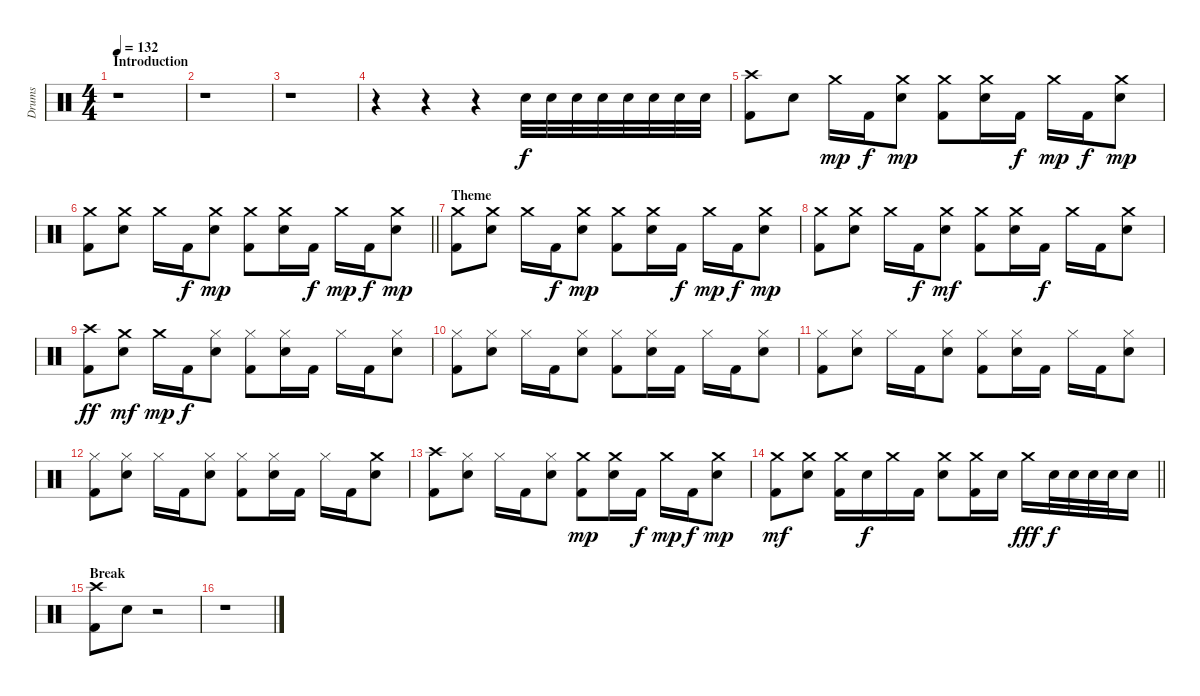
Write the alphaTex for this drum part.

\track ("Drums" "Drums") {instrument percussion}
\staff {score}
\articulation defaults
\ts (4 4)
\section ("" "Introduction")
\tempo 132
\clef neutral
\ks c
r.1{dy f} |
r.1 |
r.1 |
r.4 r.4 r.4 "Electric Snare (hit)".32 "Electric Snare (hit)".32 "Electric Snare (hit)".32 "Electric Snare (hit)".32 "Electric Snare (hit)".32 "Electric Snare (hit)".32 "Electric Snare (hit)".32 "Electric Snare (hit)".32 |
("Crash high (hit)" "Kick (hit) 2").8 "Electric Snare (hit)".8 "Crash medium (hit)".16{dy mp} "Kick (hit) 2".16{dy f} ("Crash medium (hit)" "Electric Snare (hit)").8{dy mp} ("Crash medium (hit)" "Kick (hit) 2").8 ("Crash medium (hit)" "Electric Snare (hit)").16 "Kick (hit) 2".16{dy f} "Crash medium (hit)".16{dy mp} "Kick (hit) 2".16{dy f} ("Crash medium (hit)" "Electric Snare (hit)").8{dy mp} |
\barLineRight lightlight
("Crash medium (hit)" "Kick (hit) 2").8 ("Crash medium (hit)" "Electric Snare (hit)").8 "Crash medium (hit)".16 "Kick (hit) 2".16{dy f} ("Crash medium (hit)" "Electric Snare (hit)").8{dy mp} ("Crash medium (hit)" "Kick (hit) 2").8 ("Crash medium (hit)" "Electric Snare (hit)").16 "Kick (hit) 2".16{dy f} "Crash medium (hit)".16{dy mp} "Kick (hit) 2".16{dy f} ("Crash medium (hit)" "Electric Snare (hit)").8{dy mp} |
\section ("" "Theme")
("Crash medium (hit)" "Kick (hit) 2").8 ("Crash medium (hit)" "Electric Snare (hit)").8 "Crash medium (hit)".16 "Kick (hit) 2".16{dy f} ("Crash medium (hit)" "Electric Snare (hit)").8{dy mp} ("Crash medium (hit)" "Kick (hit) 2").8 ("Crash medium (hit)" "Electric Snare (hit)").16 "Kick (hit) 2".16{dy f} "Crash medium (hit)".16{dy mp} "Kick (hit) 2".16{dy f} ("Crash medium (hit)" "Electric Snare (hit)").8{dy mp} |
("Crash medium (hit)" "Kick (hit) 2").8 ("Crash medium (hit)" "Electric Snare (hit)").8 "Crash medium (hit)".16 "Kick (hit) 2".16{dy f} ("Crash medium (hit)" "Electric Snare (hit)").8{dy mf} ("Crash medium (hit)" "Kick (hit) 2").8 ("Crash medium (hit)" "Electric Snare (hit)").16 "Kick (hit) 2".16{dy f} "Crash medium (hit)".16 "Kick (hit) 2".16 ("Crash medium (hit)" "Electric Snare (hit)").8 |
("Crash high (hit)" "Kick (hit) 2").8{dy ff} ("Crash medium (hit)" "Electric Snare (hit)").8{dy mf} "Crash medium (hit)".16{dy mp} "Kick (hit) 2".16{dy f} ("Hi-Hat (closed)" "Electric Snare (hit)").8 ("Hi-Hat (closed)" "Kick (hit) 2").8 ("Hi-Hat (closed)" "Electric Snare (hit)").16 "Kick (hit) 2".16 "Hi-Hat (closed)".16 "Kick (hit) 2".16 ("Hi-Hat (closed)" "Electric Snare (hit)").8 |
("Hi-Hat (closed)" "Kick (hit) 2").8 ("Hi-Hat (closed)" "Electric Snare (hit)").8 "Hi-Hat (closed)".16 "Kick (hit) 2".16 ("Hi-Hat (closed)" "Electric Snare (hit)").8 ("Hi-Hat (closed)" "Kick (hit) 2").8 ("Hi-Hat (closed)" "Electric Snare (hit)").16 "Kick (hit) 2".16 "Hi-Hat (closed)".16 "Kick (hit) 2".16 ("Hi-Hat (closed)" "Electric Snare (hit)").8 |
("Hi-Hat (closed)" "Kick (hit) 2").8 ("Hi-Hat (closed)" "Electric Snare (hit)").8 "Hi-Hat (closed)".16 "Kick (hit) 2".16 ("Hi-Hat (closed)" "Electric Snare (hit)").8 ("Hi-Hat (closed)" "Kick (hit) 2").8 ("Hi-Hat (closed)" "Electric Snare (hit)").16 "Kick (hit) 2".16 "Hi-Hat (closed)".16 "Kick (hit) 2".16 ("Hi-Hat (closed)" "Electric Snare (hit)").8 |
("Hi-Hat (closed)" "Kick (hit) 2").8 ("Hi-Hat (closed)" "Electric Snare (hit)").8 "Hi-Hat (closed)".16 "Kick (hit) 2".16 ("Hi-Hat (closed)" "Electric Snare (hit)").8 ("Hi-Hat (closed)" "Kick (hit) 2").8 ("Hi-Hat (closed)" "Electric Snare (hit)").16 "Kick (hit) 2".16 "Hi-Hat (closed)".16 "Kick (hit) 2".16 ("Crash medium (hit)" "Electric Snare (hit)").8 |
("Crash high (hit)" "Kick (hit) 2").8 ("Hi-Hat (closed)" "Electric Snare (hit)").8 "Hi-Hat (closed)".16 "Kick (hit) 2".16 ("Hi-Hat (closed)" "Electric Snare (hit)").8 ("Crash medium (hit)" "Kick (hit) 2").8{dy mp} ("Crash medium (hit)" "Electric Snare (hit)").16 "Kick (hit) 2".16{dy f} "Crash medium (hit)".16{dy mp} "Kick (hit) 2".16{dy f} ("Crash medium (hit)" "Electric Snare (hit)").8{dy mp} |
\barLineRight lightlight
("Crash medium (hit)" "Kick (hit) 2").8{dy mf} ("Crash medium (hit)" "Electric Snare (hit)").8 ("Crash medium (hit)" "Kick (hit) 2").16 "Electric Snare (hit)".16{dy f} "Crash medium (hit)".16 "Kick (hit) 2".16 ("Crash medium (hit)" "Electric Snare (hit)").8 ("Crash medium (hit)" "Kick (hit) 2").16 "Electric Snare (hit)".16 "Crash medium (hit)".16{dy fff} "Electric Snare (hit)".32{dy f} "Electric Snare (hit)".32 "Electric Snare (hit)".32 "Electric Snare (hit)".32 "Electric Snare (hit)".16 |
\section ("" "Break")
("Crash high (hit)" "Kick (hit) 2").8 "Electric Snare (hit)".8 r.2 |
r.1
